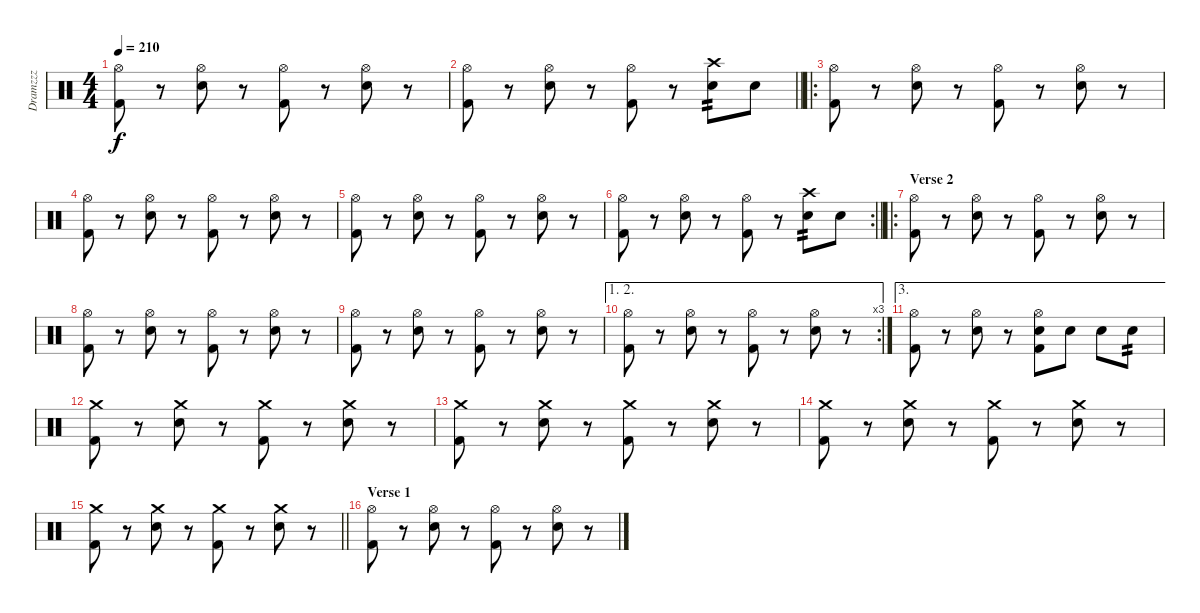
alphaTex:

\track ("Dramzzz" "Dramzzz") {instrument percussion}
\staff {score}
\articulation defaults
\ts (4 4)
\tempo 210
\clef neutral
\ks c
("Hi-Hat (open)" "Kick (hit) 2").8{dy f} r.8 ("Hi-Hat (open)" "Electric Snare (hit)").8 r.8 ("Hi-Hat (open)" "Kick (hit) 2").8 r.8 ("Hi-Hat (open)" "Electric Snare (hit)").8 r.8 |
\barLineRight lightlight
("Hi-Hat (open)" "Kick (hit) 2").8 r.8 ("Hi-Hat (open)" "Electric Snare (hit)").8 r.8 ("Hi-Hat (open)" "Kick (hit) 2").8 r.8 ("Crash high (hit)" "Electric Snare (hit)").8{tp 2} "Electric Snare (hit)".8 |
\ro
("Hi-Hat (open)" "Kick (hit) 2").8 r.8 ("Hi-Hat (open)" "Electric Snare (hit)").8 r.8 ("Hi-Hat (open)" "Kick (hit) 2").8 r.8 ("Hi-Hat (open)" "Electric Snare (hit)").8 r.8 |
("Hi-Hat (open)" "Kick (hit) 2").8 r.8 ("Hi-Hat (open)" "Electric Snare (hit)").8 r.8 ("Hi-Hat (open)" "Kick (hit) 2").8 r.8 ("Hi-Hat (open)" "Electric Snare (hit)").8 r.8 |
("Hi-Hat (open)" "Kick (hit) 2").8 r.8 ("Hi-Hat (open)" "Electric Snare (hit)").8 r.8 ("Hi-Hat (open)" "Kick (hit) 2").8 r.8 ("Hi-Hat (open)" "Electric Snare (hit)").8 r.8 |
\rc 2
\barLineRight lightlight
("Hi-Hat (open)" "Kick (hit) 2").8 r.8 ("Hi-Hat (open)" "Electric Snare (hit)").8 r.8 ("Hi-Hat (open)" "Kick (hit) 2").8 r.8 ("Crash high (hit)" "Electric Snare (hit)").8{tp 2} "Electric Snare (hit)".8 |
\ro
\section ("" "Verse 2")
("Hi-Hat (open)" "Kick (hit) 2").8 r.8 ("Hi-Hat (open)" "Electric Snare (hit)").8 r.8 ("Hi-Hat (open)" "Kick (hit) 2").8 r.8 ("Hi-Hat (open)" "Electric Snare (hit)").8 r.8 |
("Hi-Hat (open)" "Kick (hit) 2").8 r.8 ("Hi-Hat (open)" "Electric Snare (hit)").8 r.8 ("Hi-Hat (open)" "Kick (hit) 2").8 r.8 ("Hi-Hat (open)" "Electric Snare (hit)").8 r.8 |
("Hi-Hat (open)" "Kick (hit) 2").8 r.8 ("Hi-Hat (open)" "Electric Snare (hit)").8 r.8 ("Hi-Hat (open)" "Kick (hit) 2").8 r.8 ("Hi-Hat (open)" "Electric Snare (hit)").8 r.8 |
\ae (1 2)
\rc 3
("Hi-Hat (open)" "Kick (hit) 2").8 r.8 ("Hi-Hat (open)" "Electric Snare (hit)").8 r.8 ("Hi-Hat (open)" "Kick (hit) 2").8 r.8 ("Hi-Hat (open)" "Electric Snare (hit)").8 r.8 |
\ae 3
("Hi-Hat (open)" "Kick (hit) 2").8 r.8 ("Hi-Hat (open)" "Electric Snare (hit)").8 r.8 ("Hi-Hat (open)" "Electric Snare (hit)" "Kick (hit) 2").8 "Electric Snare (hit)".8 "Electric Snare (hit)".8 "Electric Snare (hit)".8{tp 2} |
("Crash medium (hit)" "Kick (hit) 2").8 r.8 ("Crash medium (hit)" "Electric Snare (hit)").8 r.8 ("Crash medium (hit)" "Kick (hit) 2").8 r.8 ("Crash medium (hit)" "Electric Snare (hit)").8 r.8 |
("Crash medium (hit)" "Kick (hit) 2").8 r.8 ("Crash medium (hit)" "Electric Snare (hit)").8 r.8 ("Crash medium (hit)" "Kick (hit) 2").8 r.8 ("Crash medium (hit)" "Electric Snare (hit)").8 r.8 |
("Crash medium (hit)" "Kick (hit) 2").8 r.8 ("Crash medium (hit)" "Electric Snare (hit)").8 r.8 ("Crash medium (hit)" "Kick (hit) 2").8 r.8 ("Crash medium (hit)" "Electric Snare (hit)").8 r.8 |
\barLineRight lightlight
("Crash medium (hit)" "Kick (hit) 2").8 r.8 ("Crash medium (hit)" "Electric Snare (hit)").8 r.8 ("Crash medium (hit)" "Kick (hit) 2").8 r.8 ("Crash medium (hit)" "Electric Snare (hit)").8 r.8 |
\section ("" "Verse 1")
("Hi-Hat (open)" "Kick (hit) 2").8 r.8 ("Hi-Hat (open)" "Electric Snare (hit)").8 r.8 ("Hi-Hat (open)" "Kick (hit) 2").8 r.8 ("Hi-Hat (open)" "Electric Snare (hit)").8 r.8
